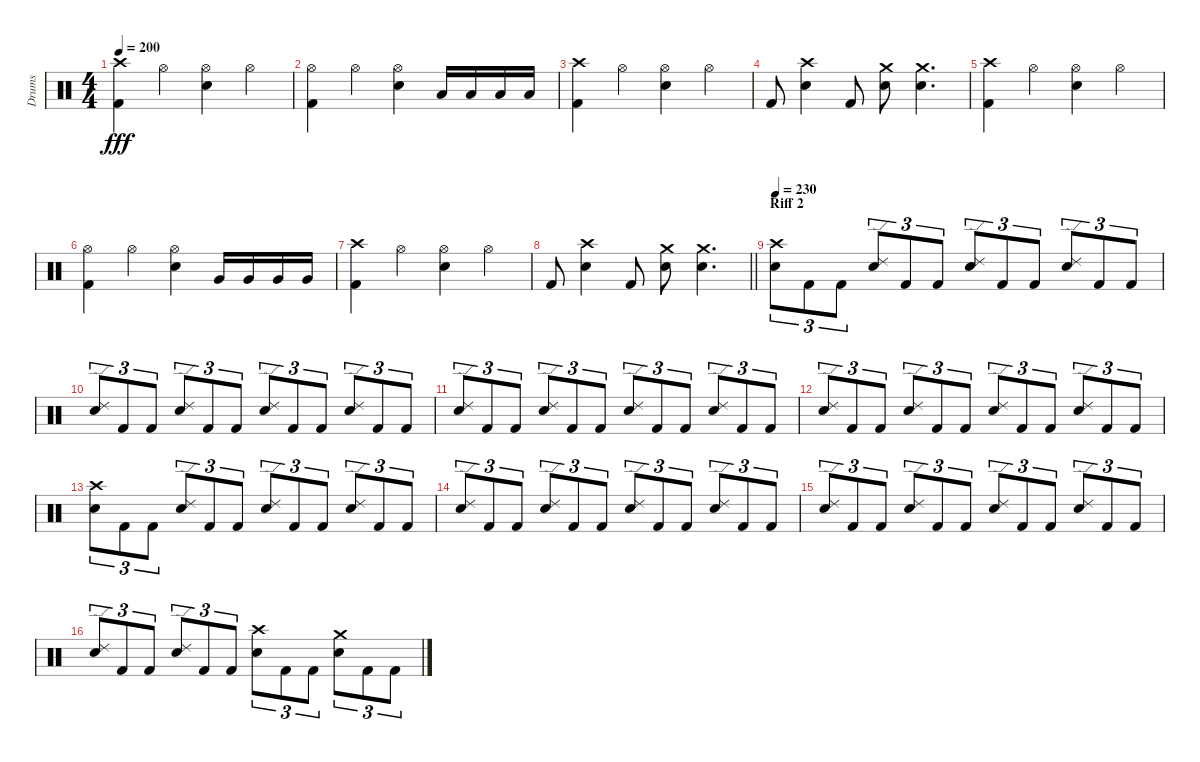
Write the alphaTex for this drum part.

\track ("Drums" "Drums") {instrument percussion}
\staff {score}
\articulation defaults
\ts (4 4)
\tempo 200
\clef neutral
\ks c
("Crash high (hit)" "Kick (hit) 2").4{dy fff} "Hi-Hat (open)".4 ("Hi-Hat (open)" "Electric Snare (hit)").4 "Hi-Hat (open)".4 |
("Hi-Hat (open)" "Kick (hit) 2").4 "Hi-Hat (open)".4 ("Hi-Hat (open)" "Electric Snare (hit)").4 "Low Tom (hit)".16 "Low Tom (hit)".16 "Low Tom (hit)".16 "Low Tom (hit)".16 |
("Crash high (hit)" "Kick (hit) 2").4 "Hi-Hat (open)".4 ("Hi-Hat (open)" "Electric Snare (hit)").4 "Hi-Hat (open)".4 |
"Kick (hit) 2".8 ("Crash high (hit)" "Electric Snare (hit)").4 "Kick (hit) 2".8 ("Crash medium (hit)" "Electric Snare (hit)").8 ("Crash medium (hit)" "Electric Snare (hit)").4{d} |
("Crash high (hit)" "Kick (hit) 2").4 "Hi-Hat (open)".4 ("Hi-Hat (open)" "Electric Snare (hit)").4 "Hi-Hat (open)".4 |
("Hi-Hat (open)" "Kick (hit) 2").4 "Hi-Hat (open)".4 ("Hi-Hat (open)" "Electric Snare (hit)").4 "Very Low Tom (hit)".16 "Very Low Tom (hit)".16 "Very Low Tom (hit)".16 "Very Low Tom (hit)".16 |
("Crash high (hit)" "Kick (hit) 2").4 "Hi-Hat (open)".4 ("Hi-Hat (open)" "Electric Snare (hit)").4 "Hi-Hat (open)".4 |
\barLineRight lightlight "Kick (hit) 2".8
("Crash high (hit)" "Electric Snare (hit)").4 "Kick (hit) 2".8 ("Crash medium (hit)" "Electric Snare (hit)").8 ("Crash medium (hit)" "Electric Snare (hit)").4{d} |
\section ("" "Riff 2")
\tempo 230
("Crash high (hit)" "Electric Snare (hit)").8{tu (3 2)} "Kick (hit) 2".8{tu (3 2)} "Kick (hit) 2".8{tu (3 2)} ("Ride (edge) 2" "Electric Snare (hit)").8{tu (3 2)} "Kick (hit) 2".8{tu (3 2)} "Kick (hit) 2".8{tu (3 2)} ("Ride (edge) 2" "Electric Snare (hit)").8{tu (3 2)} "Kick (hit) 2".8{tu (3 2)} "Kick (hit) 2".8{tu (3 2)} ("Ride (edge) 2" "Electric Snare (hit)").8{tu (3 2)} "Kick (hit) 2".8{tu (3 2)} "Kick (hit) 2".8{tu (3 2)} |
("Ride (edge) 2" "Electric Snare (hit)").8{tu (3 2)} "Kick (hit) 2".8{tu (3 2)} "Kick (hit) 2".8{tu (3 2)} ("Ride (edge) 2" "Electric Snare (hit)").8{tu (3 2)} "Kick (hit) 2".8{tu (3 2)} "Kick (hit) 2".8{tu (3 2)} ("Ride (edge) 2" "Electric Snare (hit)").8{tu (3 2)} "Kick (hit) 2".8{tu (3 2)} "Kick (hit) 2".8{tu (3 2)} ("Ride (edge) 2" "Electric Snare (hit)").8{tu (3 2)} "Kick (hit) 2".8{tu (3 2)} "Kick (hit) 2".8{tu (3 2)} |
("Ride (edge) 2" "Electric Snare (hit)").8{tu (3 2)} "Kick (hit) 2".8{tu (3 2)} "Kick (hit) 2".8{tu (3 2)} ("Ride (edge) 2" "Electric Snare (hit)").8{tu (3 2)} "Kick (hit) 2".8{tu (3 2)} "Kick (hit) 2".8{tu (3 2)} ("Ride (edge) 2" "Electric Snare (hit)").8{tu (3 2)} "Kick (hit) 2".8{tu (3 2)} "Kick (hit) 2".8{tu (3 2)} ("Ride (edge) 2" "Electric Snare (hit)").8{tu (3 2)} "Kick (hit) 2".8{tu (3 2)} "Kick (hit) 2".8{tu (3 2)} |
("Ride (edge) 2" "Electric Snare (hit)").8{tu (3 2)} "Kick (hit) 2".8{tu (3 2)} "Kick (hit) 2".8{tu (3 2)} ("Ride (edge) 2" "Electric Snare (hit)").8{tu (3 2)} "Kick (hit) 2".8{tu (3 2)} "Kick (hit) 2".8{tu (3 2)} ("Ride (edge) 2" "Electric Snare (hit)").8{tu (3 2)} "Kick (hit) 2".8{tu (3 2)} "Kick (hit) 2".8{tu (3 2)} ("Ride (edge) 2" "Electric Snare (hit)").8{tu (3 2)} "Kick (hit) 2".8{tu (3 2)} "Kick (hit) 2".8{tu (3 2)} |
("Crash high (hit)" "Electric Snare (hit)").8{tu (3 2)} "Kick (hit) 2".8{tu (3 2)} "Kick (hit) 2".8{tu (3 2)} ("Ride (edge) 2" "Electric Snare (hit)").8{tu (3 2)} "Kick (hit) 2".8{tu (3 2)} "Kick (hit) 2".8{tu (3 2)} ("Ride (edge) 2" "Electric Snare (hit)").8{tu (3 2)} "Kick (hit) 2".8{tu (3 2)} "Kick (hit) 2".8{tu (3 2)} ("Ride (edge) 2" "Electric Snare (hit)").8{tu (3 2)} "Kick (hit) 2".8{tu (3 2)} "Kick (hit) 2".8{tu (3 2)} |
("Ride (edge) 2" "Electric Snare (hit)").8{tu (3 2)} "Kick (hit) 2".8{tu (3 2)} "Kick (hit) 2".8{tu (3 2)} ("Ride (edge) 2" "Electric Snare (hit)").8{tu (3 2)} "Kick (hit) 2".8{tu (3 2)} "Kick (hit) 2".8{tu (3 2)} ("Ride (edge) 2" "Electric Snare (hit)").8{tu (3 2)} "Kick (hit) 2".8{tu (3 2)} "Kick (hit) 2".8{tu (3 2)} ("Ride (edge) 2" "Electric Snare (hit)").8{tu (3 2)} "Kick (hit) 2".8{tu (3 2)} "Kick (hit) 2".8{tu (3 2)} |
("Ride (edge) 2" "Electric Snare (hit)").8{tu (3 2)} "Kick (hit) 2".8{tu (3 2)} "Kick (hit) 2".8{tu (3 2)} ("Ride (edge) 2" "Electric Snare (hit)").8{tu (3 2)} "Kick (hit) 2".8{tu (3 2)} "Kick (hit) 2".8{tu (3 2)} ("Ride (edge) 2" "Electric Snare (hit)").8{tu (3 2)} "Kick (hit) 2".8{tu (3 2)} "Kick (hit) 2".8{tu (3 2)} ("Ride (edge) 2" "Electric Snare (hit)").8{tu (3 2)} "Kick (hit) 2".8{tu (3 2)} "Kick (hit) 2".8{tu (3 2)} |
("Ride (edge) 2" "Electric Snare (hit)").8{tu (3 2)} "Kick (hit) 2".8{tu (3 2)} "Kick (hit) 2".8{tu (3 2)} ("Ride (edge) 2" "Electric Snare (hit)").8{tu (3 2)} "Kick (hit) 2".8{tu (3 2)} "Kick (hit) 2".8{tu (3 2)} ("Crash high (hit)" "Electric Snare (hit)").8{tu (3 2)} "Kick (hit) 2".8{tu (3 2)} "Kick (hit) 2".8{tu (3 2)} ("Crash medium (hit)" "Electric Snare (hit)").8{tu (3 2)} "Kick (hit) 2".8{tu (3 2)} "Kick (hit) 2".8{tu (3 2)}
